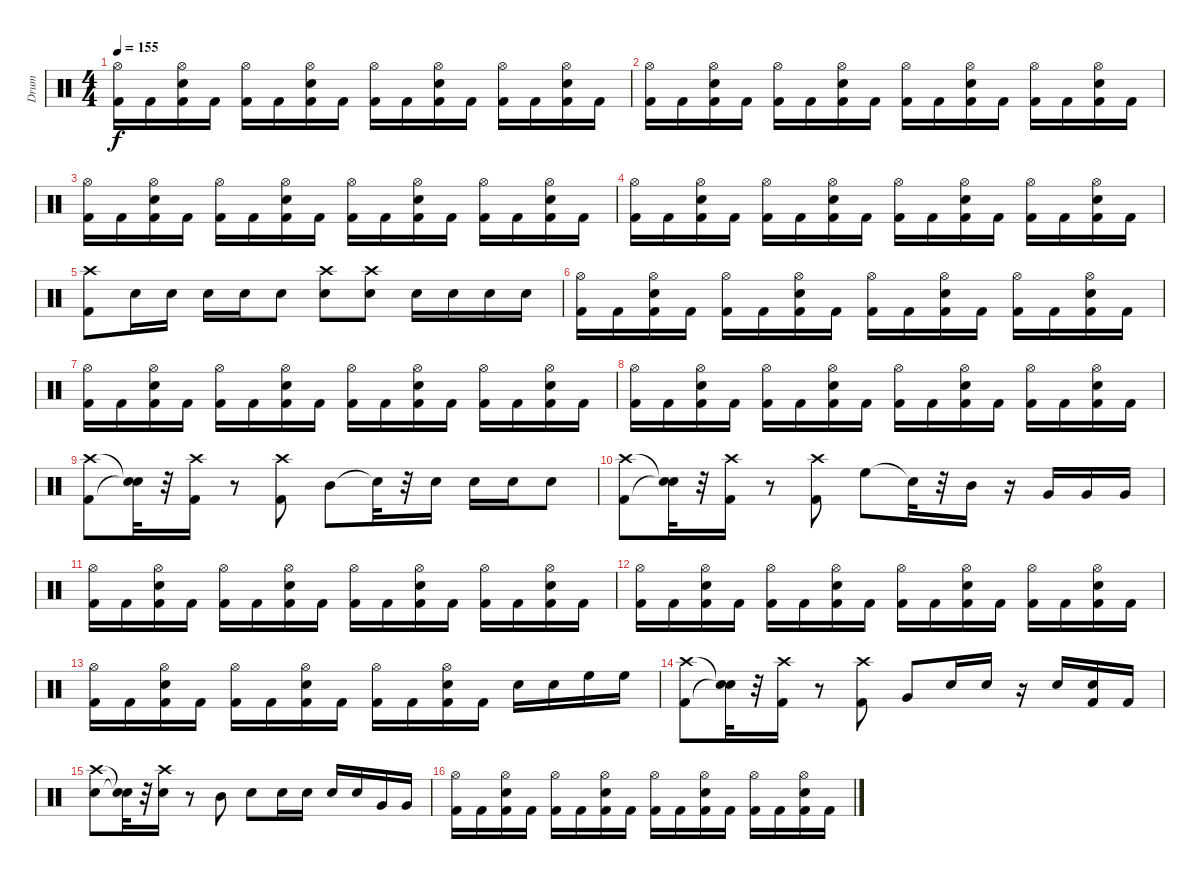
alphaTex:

\track ("Drum" "Drum") {instrument percussion}
\staff {score}
\articulation defaults
\ts (4 4)
\tempo 155
\clef neutral
\ks c
("Kick (hit) 2" "Hi-Hat (open)").16{dy f} "Kick (hit) 2".16 ("Kick (hit) 2" "Snare (hit) 2" "Hi-Hat (open)").16 "Kick (hit) 2".16 ("Kick (hit) 2" "Hi-Hat (open)").16 "Kick (hit) 2".16 ("Kick (hit) 2" "Snare (hit) 2" "Hi-Hat (open)").16 "Kick (hit) 2".16 ("Kick (hit) 2" "Hi-Hat (open)").16 "Kick (hit) 2".16 ("Kick (hit) 2" "Snare (hit) 2" "Hi-Hat (open)").16 "Kick (hit) 2".16 ("Kick (hit) 2" "Hi-Hat (open)").16 "Kick (hit) 2".16 ("Kick (hit) 2" "Snare (hit) 2" "Hi-Hat (open)").16 "Kick (hit) 2".16 |
("Kick (hit) 2" "Hi-Hat (open)").16 "Kick (hit) 2".16 ("Kick (hit) 2" "Snare (hit) 2" "Hi-Hat (open)").16 "Kick (hit) 2".16 ("Kick (hit) 2" "Hi-Hat (open)").16 "Kick (hit) 2".16 ("Kick (hit) 2" "Snare (hit) 2" "Hi-Hat (open)").16 "Kick (hit) 2".16 ("Kick (hit) 2" "Hi-Hat (open)").16 "Kick (hit) 2".16 ("Kick (hit) 2" "Snare (hit) 2" "Hi-Hat (open)").16 "Kick (hit) 2".16 ("Kick (hit) 2" "Hi-Hat (open)").16 "Kick (hit) 2".16 ("Kick (hit) 2" "Snare (hit) 2" "Hi-Hat (open)").16 "Kick (hit) 2".16 |
("Kick (hit) 2" "Hi-Hat (open)").16 "Kick (hit) 2".16 ("Kick (hit) 2" "Snare (hit) 2" "Hi-Hat (open)").16 "Kick (hit) 2".16 ("Kick (hit) 2" "Hi-Hat (open)").16 "Kick (hit) 2".16 ("Kick (hit) 2" "Snare (hit) 2" "Hi-Hat (open)").16 "Kick (hit) 2".16 ("Kick (hit) 2" "Hi-Hat (open)").16 "Kick (hit) 2".16 ("Kick (hit) 2" "Snare (hit) 2" "Hi-Hat (open)").16 "Kick (hit) 2".16 ("Kick (hit) 2" "Hi-Hat (open)").16 "Kick (hit) 2".16 ("Kick (hit) 2" "Snare (hit) 2" "Hi-Hat (open)").16 "Kick (hit) 2".16 |
("Kick (hit) 2" "Hi-Hat (open)").16 "Kick (hit) 2".16 ("Kick (hit) 2" "Snare (hit) 2" "Hi-Hat (open)").16 "Kick (hit) 2".16 ("Kick (hit) 2" "Hi-Hat (open)").16 "Kick (hit) 2".16 ("Kick (hit) 2" "Snare (hit) 2" "Hi-Hat (open)").16 "Kick (hit) 2".16 ("Kick (hit) 2" "Hi-Hat (open)").16 "Kick (hit) 2".16 ("Kick (hit) 2" "Snare (hit) 2" "Hi-Hat (open)").16 "Kick (hit) 2".16 ("Kick (hit) 2" "Hi-Hat (open)").16 "Kick (hit) 2".16 ("Kick (hit) 2" "Snare (hit) 2" "Hi-Hat (open)").16 "Kick (hit) 2".16 |
("Kick (hit) 2" "Crash high (hit)").8 "Snare (hit) 2".16 "Snare (hit) 2".16 "Snare (hit) 2".16 "Snare (hit) 2".16 "Snare (hit) 2".8 ("Snare (hit) 2" "Crash high (hit)").8 ("Snare (hit) 2" "Crash high (hit)").8 "Snare (hit) 2".16 "Snare (hit) 2".16 "Snare (hit) 2".16 "Snare (hit) 2".16 |
("Kick (hit) 2" "Hi-Hat (open)").16 "Kick (hit) 2".16 ("Kick (hit) 2" "Snare (hit) 2" "Hi-Hat (open)").16 "Kick (hit) 2".16 ("Kick (hit) 2" "Hi-Hat (open)").16 "Kick (hit) 2".16 ("Kick (hit) 2" "Snare (hit) 2" "Hi-Hat (open)").16 "Kick (hit) 2".16 ("Kick (hit) 2" "Hi-Hat (open)").16 "Kick (hit) 2".16 ("Kick (hit) 2" "Snare (hit) 2" "Hi-Hat (open)").16 "Kick (hit) 2".16 ("Kick (hit) 2" "Hi-Hat (open)").16 "Kick (hit) 2".16 ("Kick (hit) 2" "Snare (hit) 2" "Hi-Hat (open)").16 "Kick (hit) 2".16 |
("Kick (hit) 2" "Hi-Hat (open)").16 "Kick (hit) 2".16 ("Kick (hit) 2" "Snare (hit) 2" "Hi-Hat (open)").16 "Kick (hit) 2".16 ("Kick (hit) 2" "Hi-Hat (open)").16 "Kick (hit) 2".16 ("Kick (hit) 2" "Snare (hit) 2" "Hi-Hat (open)").16 "Kick (hit) 2".16 ("Kick (hit) 2" "Hi-Hat (open)").16 "Kick (hit) 2".16 ("Kick (hit) 2" "Snare (hit) 2" "Hi-Hat (open)").16 "Kick (hit) 2".16 ("Kick (hit) 2" "Hi-Hat (open)").16 "Kick (hit) 2".16 ("Kick (hit) 2" "Snare (hit) 2" "Hi-Hat (open)").16 "Kick (hit) 2".16 |
("Kick (hit) 2" "Hi-Hat (open)").16 "Kick (hit) 2".16 ("Kick (hit) 2" "Snare (hit) 2" "Hi-Hat (open)").16 "Kick (hit) 2".16 ("Kick (hit) 2" "Hi-Hat (open)").16 "Kick (hit) 2".16 ("Kick (hit) 2" "Snare (hit) 2" "Hi-Hat (open)").16 "Kick (hit) 2".16 ("Kick (hit) 2" "Hi-Hat (open)").16 "Kick (hit) 2".16 ("Kick (hit) 2" "Snare (hit) 2" "Hi-Hat (open)").16 "Kick (hit) 2".16 ("Kick (hit) 2" "Hi-Hat (open)").16 "Kick (hit) 2".16 ("Kick (hit) 2" "Snare (hit) 2" "Hi-Hat (open)").16 "Kick (hit) 2".16 |
("Kick (hit) 2" "Crash high (hit)").8 ("Snare (hit)"{t} "Snare (hit)"{t}).32 r.32 ("Kick (hit) 2" "Crash high (hit)").16 r.8 ("Kick (hit) 2" "Crash high (hit)").8 "Mid Tom (hit)".8 "Snare (hit)"{t}.32 r.32 "Snare (hit) 2".16 "Snare (hit) 2".16 "Snare (hit) 2".16 "Snare (hit) 2".8 |
("Kick (hit) 2" "Crash high (hit)").8 ("Snare (hit)"{t} "Snare (hit)"{t}).32 r.32 ("Kick (hit) 2" "Crash high (hit)").16 r.8 ("Kick (hit) 2" "Crash high (hit)").8 "High Floor Tom (hit)".8 "Snare (hit)"{t}.32 r.32 "Mid Tom (hit)".16 r.16 "Very Low Tom (hit)".16 "Very Low Tom (hit)".16 "Very Low Tom (hit)".16 |
("Kick (hit) 2" "Hi-Hat (open)").16 "Kick (hit) 2".16 ("Kick (hit) 2" "Snare (hit) 2" "Hi-Hat (open)").16 "Kick (hit) 2".16 ("Kick (hit) 2" "Hi-Hat (open)").16 "Kick (hit) 2".16 ("Kick (hit) 2" "Snare (hit) 2" "Hi-Hat (open)").16 "Kick (hit) 2".16 ("Kick (hit) 2" "Hi-Hat (open)").16 "Kick (hit) 2".16 ("Kick (hit) 2" "Snare (hit) 2" "Hi-Hat (open)").16 "Kick (hit) 2".16 ("Kick (hit) 2" "Hi-Hat (open)").16 "Kick (hit) 2".16 ("Kick (hit) 2" "Snare (hit) 2" "Hi-Hat (open)").16 "Kick (hit) 2".16 |
("Kick (hit) 2" "Hi-Hat (open)").16 "Kick (hit) 2".16 ("Kick (hit) 2" "Snare (hit) 2" "Hi-Hat (open)").16 "Kick (hit) 2".16 ("Kick (hit) 2" "Hi-Hat (open)").16 "Kick (hit) 2".16 ("Kick (hit) 2" "Snare (hit) 2" "Hi-Hat (open)").16 "Kick (hit) 2".16 ("Kick (hit) 2" "Hi-Hat (open)").16 "Kick (hit) 2".16 ("Kick (hit) 2" "Snare (hit) 2" "Hi-Hat (open)").16 "Kick (hit) 2".16 ("Kick (hit) 2" "Hi-Hat (open)").16 "Kick (hit) 2".16 ("Kick (hit) 2" "Snare (hit) 2" "Hi-Hat (open)").16 "Kick (hit) 2".16 |
("Kick (hit) 2" "Hi-Hat (open)").16 "Kick (hit) 2".16 ("Kick (hit) 2" "Snare (hit) 2" "Hi-Hat (open)").16 "Kick (hit) 2".16 ("Kick (hit) 2" "Hi-Hat (open)").16 "Kick (hit) 2".16 ("Kick (hit) 2" "Snare (hit) 2" "Hi-Hat (open)").16 "Kick (hit) 2".16 ("Kick (hit) 2" "Hi-Hat (open)").16 "Kick (hit) 2".16 ("Kick (hit) 2" "Snare (hit) 2" "Hi-Hat (open)").16 "Kick (hit) 2".16 "Snare (hit) 2".16 "Snare (hit) 2".16 "High Floor Tom (hit)".16 "High Floor Tom (hit)".16 |
("Kick (hit) 2" "Crash high (hit)").8 ("Snare (hit)"{t} "Snare (hit)"{t}).32 r.32 ("Kick (hit) 2" "Crash high (hit)").16 r.8 ("Kick (hit) 2" "Crash high (hit)").8 "Very Low Tom (hit)".8 "Snare (hit) 2".16 "Snare (hit) 2".16 r.16 "Snare (hit) 2".16 ("Kick (hit) 2" "Snare (hit) 2").16 "Kick (hit) 2".16 |
("Snare (hit) 2" "Crash high (hit)").8 ("Snare (hit)"{t} "Snare (hit)"{t}).32 r.32 ("Snare (hit) 2" "Crash high (hit)").16 r.8 "Mid Tom (hit)".8 "Snare (hit) 2".8 "Snare (hit) 2".16 "Snare (hit) 2".16 "Snare (hit) 2".16 "Snare (hit) 2".16 "Very Low Tom (hit)".16 "Very Low Tom (hit)".16 |
("Kick (hit) 2" "Hi-Hat (open)").16 "Kick (hit) 2".16 ("Kick (hit) 2" "Snare (hit) 2" "Hi-Hat (open)").16 "Kick (hit) 2".16 ("Kick (hit) 2" "Hi-Hat (open)").16 "Kick (hit) 2".16 ("Kick (hit) 2" "Snare (hit) 2" "Hi-Hat (open)").16 "Kick (hit) 2".16 ("Kick (hit) 2" "Hi-Hat (open)").16 "Kick (hit) 2".16 ("Kick (hit) 2" "Snare (hit) 2" "Hi-Hat (open)").16 "Kick (hit) 2".16 ("Kick (hit) 2" "Hi-Hat (open)").16 "Kick (hit) 2".16 ("Kick (hit) 2" "Snare (hit) 2" "Hi-Hat (open)").16 "Kick (hit) 2".16
